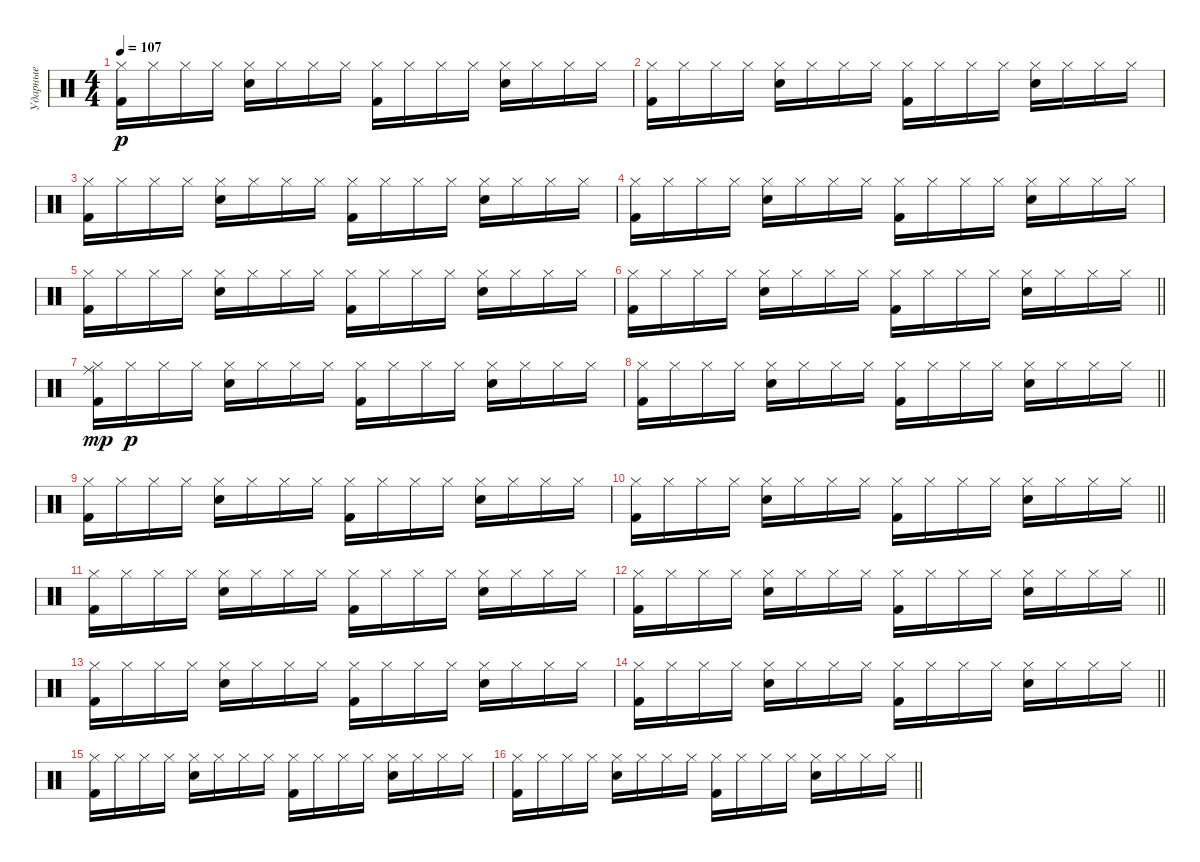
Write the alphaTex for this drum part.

\track ("Ударные" "Ударные") {solo instrument percussion}
\staff {score}
\articulation defaults
\ts (4 4)
\tempo 107
\clef neutral
\ks c
("Kick (hit) 2" "Hi-Hat (closed)").16{dy p} "Hi-Hat (closed)".16 "Hi-Hat (closed)".16 "Hi-Hat (closed)".16 ("Snare (hit) 2" "Hi-Hat (closed)").16 "Hi-Hat (closed)".16 "Hi-Hat (closed)".16 "Hi-Hat (closed)".16 ("Kick (hit) 2" "Hi-Hat (closed)").16 "Hi-Hat (closed)".16 "Hi-Hat (closed)".16 "Hi-Hat (closed)".16 ("Snare (hit) 2" "Hi-Hat (closed)").16 "Hi-Hat (closed)".16 "Hi-Hat (closed)".16 "Hi-Hat (closed)".16 |
("Kick (hit) 2" "Hi-Hat (closed)").16 "Hi-Hat (closed)".16 "Hi-Hat (closed)".16 "Hi-Hat (closed)".16 ("Snare (hit) 2" "Hi-Hat (closed)").16 "Hi-Hat (closed)".16 "Hi-Hat (closed)".16 "Hi-Hat (closed)".16 ("Kick (hit) 2" "Hi-Hat (closed)").16 "Hi-Hat (closed)".16 "Hi-Hat (closed)".16 "Hi-Hat (closed)".16 ("Snare (hit) 2" "Hi-Hat (closed)").16 "Hi-Hat (closed)".16 "Hi-Hat (closed)".16 "Hi-Hat (closed)".16 |
("Kick (hit) 2" "Hi-Hat (closed)").16 "Hi-Hat (closed)".16 "Hi-Hat (closed)".16 "Hi-Hat (closed)".16 ("Snare (hit) 2" "Hi-Hat (closed)").16 "Hi-Hat (closed)".16 "Hi-Hat (closed)".16 "Hi-Hat (closed)".16 ("Kick (hit) 2" "Hi-Hat (closed)").16 "Hi-Hat (closed)".16 "Hi-Hat (closed)".16 "Hi-Hat (closed)".16 ("Snare (hit) 2" "Hi-Hat (closed)").16 "Hi-Hat (closed)".16 "Hi-Hat (closed)".16 "Hi-Hat (closed)".16 |
("Kick (hit) 2" "Hi-Hat (closed)").16 "Hi-Hat (closed)".16 "Hi-Hat (closed)".16 "Hi-Hat (closed)".16 ("Snare (hit) 2" "Hi-Hat (closed)").16 "Hi-Hat (closed)".16 "Hi-Hat (closed)".16 "Hi-Hat (closed)".16 ("Kick (hit) 2" "Hi-Hat (closed)").16 "Hi-Hat (closed)".16 "Hi-Hat (closed)".16 "Hi-Hat (closed)".16 ("Snare (hit) 2" "Hi-Hat (closed)").16 "Hi-Hat (closed)".16 "Hi-Hat (closed)".16 "Hi-Hat (closed)".16 |
("Kick (hit) 2" "Hi-Hat (closed)").16 "Hi-Hat (closed)".16 "Hi-Hat (closed)".16 "Hi-Hat (closed)".16 ("Snare (hit) 2" "Hi-Hat (closed)").16 "Hi-Hat (closed)".16 "Hi-Hat (closed)".16 "Hi-Hat (closed)".16 ("Kick (hit) 2" "Hi-Hat (closed)").16 "Hi-Hat (closed)".16 "Hi-Hat (closed)".16 "Hi-Hat (closed)".16 ("Snare (hit) 2" "Hi-Hat (closed)").16 "Hi-Hat (closed)".16 "Hi-Hat (closed)".16 "Hi-Hat (closed)".16 |
\barLineRight lightlight
("Kick (hit) 2" "Hi-Hat (closed)").16 "Hi-Hat (closed)".16 "Hi-Hat (closed)".16 "Hi-Hat (closed)".16 ("Snare (hit) 2" "Hi-Hat (closed)").16 "Hi-Hat (closed)".16 "Hi-Hat (closed)".16 "Hi-Hat (closed)".16 ("Kick (hit) 2" "Hi-Hat (closed)").16 "Hi-Hat (closed)".16 "Hi-Hat (closed)".16 "Hi-Hat (closed)".16 ("Snare (hit) 2" "Hi-Hat (closed)").16 "Hi-Hat (closed)".16 "Hi-Hat (closed)".16 "Hi-Hat (closed)".16 |
("Kick (hit) 2" "Hi-Hat (closed)" "Ride (middle)").16{dy mp} "Hi-Hat (closed)".16{dy p} "Hi-Hat (closed)".16 "Hi-Hat (closed)".16 ("Snare (hit) 2" "Hi-Hat (closed)").16 "Hi-Hat (closed)".16 "Hi-Hat (closed)".16 "Hi-Hat (closed)".16 ("Kick (hit) 2" "Hi-Hat (closed)").16 "Hi-Hat (closed)".16 "Hi-Hat (closed)".16 "Hi-Hat (closed)".16 ("Snare (hit) 2" "Hi-Hat (closed)").16 "Hi-Hat (closed)".16 "Hi-Hat (closed)".16 "Hi-Hat (closed)".16 |
\barLineRight lightlight
("Kick (hit) 2" "Hi-Hat (closed)").16 "Hi-Hat (closed)".16 "Hi-Hat (closed)".16 "Hi-Hat (closed)".16 ("Snare (hit) 2" "Hi-Hat (closed)").16 "Hi-Hat (closed)".16 "Hi-Hat (closed)".16 "Hi-Hat (closed)".16 ("Kick (hit) 2" "Hi-Hat (closed)").16 "Hi-Hat (closed)".16 "Hi-Hat (closed)".16 "Hi-Hat (closed)".16 ("Snare (hit) 2" "Hi-Hat (closed)").16 "Hi-Hat (closed)".16 "Hi-Hat (closed)".16 "Hi-Hat (closed)".16 |
("Kick (hit) 2" "Hi-Hat (closed)").16 "Hi-Hat (closed)".16 "Hi-Hat (closed)".16 "Hi-Hat (closed)".16 ("Snare (hit) 2" "Hi-Hat (closed)").16 "Hi-Hat (closed)".16 "Hi-Hat (closed)".16 "Hi-Hat (closed)".16 ("Kick (hit) 2" "Hi-Hat (closed)").16 "Hi-Hat (closed)".16 "Hi-Hat (closed)".16 "Hi-Hat (closed)".16 ("Snare (hit) 2" "Hi-Hat (closed)").16 "Hi-Hat (closed)".16 "Hi-Hat (closed)".16 "Hi-Hat (closed)".16 |
\barLineRight lightlight
("Kick (hit) 2" "Hi-Hat (closed)").16 "Hi-Hat (closed)".16 "Hi-Hat (closed)".16 "Hi-Hat (closed)".16 ("Snare (hit) 2" "Hi-Hat (closed)").16 "Hi-Hat (closed)".16 "Hi-Hat (closed)".16 "Hi-Hat (closed)".16 ("Kick (hit) 2" "Hi-Hat (closed)").16 "Hi-Hat (closed)".16 "Hi-Hat (closed)".16 "Hi-Hat (closed)".16 ("Snare (hit) 2" "Hi-Hat (closed)").16 "Hi-Hat (closed)".16 "Hi-Hat (closed)".16 "Hi-Hat (closed)".16 |
("Kick (hit) 2" "Hi-Hat (closed)").16 "Hi-Hat (closed)".16 "Hi-Hat (closed)".16 "Hi-Hat (closed)".16 ("Snare (hit) 2" "Hi-Hat (closed)").16 "Hi-Hat (closed)".16 "Hi-Hat (closed)".16 "Hi-Hat (closed)".16 ("Kick (hit) 2" "Hi-Hat (closed)").16 "Hi-Hat (closed)".16 "Hi-Hat (closed)".16 "Hi-Hat (closed)".16 ("Snare (hit) 2" "Hi-Hat (closed)").16 "Hi-Hat (closed)".16 "Hi-Hat (closed)".16 "Hi-Hat (closed)".16 |
\barLineRight lightlight
("Kick (hit) 2" "Hi-Hat (closed)").16 "Hi-Hat (closed)".16 "Hi-Hat (closed)".16 "Hi-Hat (closed)".16 ("Snare (hit) 2" "Hi-Hat (closed)").16 "Hi-Hat (closed)".16 "Hi-Hat (closed)".16 "Hi-Hat (closed)".16 ("Kick (hit) 2" "Hi-Hat (closed)").16 "Hi-Hat (closed)".16 "Hi-Hat (closed)".16 "Hi-Hat (closed)".16 ("Snare (hit) 2" "Hi-Hat (closed)").16 "Hi-Hat (closed)".16 "Hi-Hat (closed)".16 "Hi-Hat (closed)".16 |
("Kick (hit) 2" "Hi-Hat (closed)").16 "Hi-Hat (closed)".16 "Hi-Hat (closed)".16 "Hi-Hat (closed)".16 ("Snare (hit) 2" "Hi-Hat (closed)").16 "Hi-Hat (closed)".16 "Hi-Hat (closed)".16 "Hi-Hat (closed)".16 ("Kick (hit) 2" "Hi-Hat (closed)").16 "Hi-Hat (closed)".16 "Hi-Hat (closed)".16 "Hi-Hat (closed)".16 ("Snare (hit) 2" "Hi-Hat (closed)").16 "Hi-Hat (closed)".16 "Hi-Hat (closed)".16 "Hi-Hat (closed)".16 |
\barLineRight lightlight
("Kick (hit) 2" "Hi-Hat (closed)").16 "Hi-Hat (closed)".16 "Hi-Hat (closed)".16 "Hi-Hat (closed)".16 ("Snare (hit) 2" "Hi-Hat (closed)").16 "Hi-Hat (closed)".16 "Hi-Hat (closed)".16 "Hi-Hat (closed)".16 ("Kick (hit) 2" "Hi-Hat (closed)").16 "Hi-Hat (closed)".16 "Hi-Hat (closed)".16 "Hi-Hat (closed)".16 ("Snare (hit) 2" "Hi-Hat (closed)").16 "Hi-Hat (closed)".16 "Hi-Hat (closed)".16 "Hi-Hat (closed)".16 |
("Kick (hit) 2" "Hi-Hat (closed)").16 "Hi-Hat (closed)".16 "Hi-Hat (closed)".16 "Hi-Hat (closed)".16 ("Snare (hit) 2" "Hi-Hat (closed)").16 "Hi-Hat (closed)".16 "Hi-Hat (closed)".16 "Hi-Hat (closed)".16 ("Kick (hit) 2" "Hi-Hat (closed)").16 "Hi-Hat (closed)".16 "Hi-Hat (closed)".16 "Hi-Hat (closed)".16 ("Snare (hit) 2" "Hi-Hat (closed)").16 "Hi-Hat (closed)".16 "Hi-Hat (closed)".16 "Hi-Hat (closed)".16 |
\barLineRight lightlight
("Kick (hit) 2" "Hi-Hat (closed)").16 "Hi-Hat (closed)".16 "Hi-Hat (closed)".16 "Hi-Hat (closed)".16 ("Snare (hit) 2" "Hi-Hat (closed)").16 "Hi-Hat (closed)".16 "Hi-Hat (closed)".16 "Hi-Hat (closed)".16 ("Kick (hit) 2" "Hi-Hat (closed)").16 "Hi-Hat (closed)".16 "Hi-Hat (closed)".16 "Hi-Hat (closed)".16 ("Snare (hit) 2" "Hi-Hat (closed)").16 "Hi-Hat (closed)".16 "Hi-Hat (closed)".16 "Hi-Hat (closed)".16
